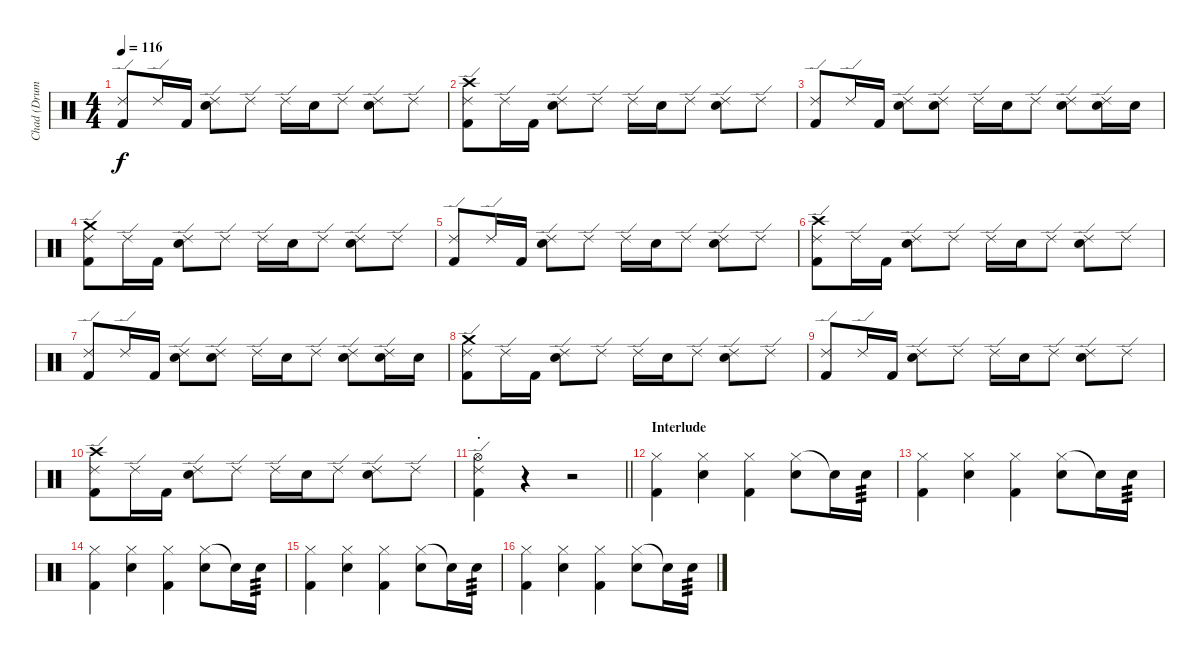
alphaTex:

\track ("Chad (Drums)" "Chad (Drum") {instrument percussion}
\staff {score}
\articulation defaults
\ts (4 4)
\tempo 116
\clef neutral
\ks c
("Ride (edge) 2" "Kick (hit) 2").8{dy f} "Ride (edge) 2".16 "Kick (hit) 2".16 ("Ride (edge) 2" "Snare (hit) 2").8 "Ride (edge) 2".8 "Ride (edge) 2".16 "Snare (hit) 2".16 "Ride (edge) 2".8 ("Ride (edge) 2" "Snare (hit) 2").8 "Ride (edge) 2".8 |
("Ride (edge) 2" "Crash high (hit)" "Kick (hit) 2").8 "Ride (edge) 2".16 "Kick (hit) 2".16 ("Ride (edge) 2" "Snare (hit) 2").8 "Ride (edge) 2".8 "Ride (edge) 2".16 "Snare (hit) 2".16 "Ride (edge) 2".8 ("Ride (edge) 2" "Snare (hit) 2").8 "Ride (edge) 2".8 |
("Ride (edge) 2" "Kick (hit) 2").8 "Ride (edge) 2".16 "Kick (hit) 2".16 ("Ride (edge) 2" "Snare (hit) 2").8 ("Ride (edge) 2" "Snare (hit) 2").8 "Ride (edge) 2".16 "Snare (hit) 2".16 "Ride (edge) 2".8 ("Ride (edge) 2" "Snare (hit) 2").8 ("Ride (edge) 2" "Snare (hit) 2").16 "Snare (hit) 2".16 |
("Ride (edge) 2" "Crash medium (hit)" "Kick (hit) 2").8 "Ride (edge) 2".16 "Kick (hit) 2".16 ("Ride (edge) 2" "Snare (hit) 2").8 "Ride (edge) 2".8 "Ride (edge) 2".16 "Snare (hit) 2".16 "Ride (edge) 2".8 ("Ride (edge) 2" "Snare (hit) 2").8 "Ride (edge) 2".8 |
("Ride (edge) 2" "Kick (hit) 2").8 "Ride (edge) 2".16 "Kick (hit) 2".16 ("Ride (edge) 2" "Snare (hit) 2").8 "Ride (edge) 2".8 "Ride (edge) 2".16 "Snare (hit) 2".16 "Ride (edge) 2".8 ("Ride (edge) 2" "Snare (hit) 2").8 "Ride (edge) 2".8 |
("Ride (edge) 2" "Crash high (hit)" "Kick (hit) 2").8 "Ride (edge) 2".16 "Kick (hit) 2".16 ("Ride (edge) 2" "Snare (hit) 2").8 "Ride (edge) 2".8 "Ride (edge) 2".16 "Snare (hit) 2".16 "Ride (edge) 2".8 ("Ride (edge) 2" "Snare (hit) 2").8 "Ride (edge) 2".8 |
("Ride (edge) 2" "Kick (hit) 2").8 "Ride (edge) 2".16 "Kick (hit) 2".16 ("Ride (edge) 2" "Snare (hit) 2").8 ("Ride (edge) 2" "Snare (hit) 2").8 "Ride (edge) 2".16 "Snare (hit) 2".16 "Ride (edge) 2".8 ("Ride (edge) 2" "Snare (hit) 2").8 ("Ride (edge) 2" "Snare (hit) 2").16 "Snare (hit) 2".16 |
("Ride (edge) 2" "Crash medium (hit)" "Kick (hit) 2").8 "Ride (edge) 2".16 "Kick (hit) 2".16 ("Ride (edge) 2" "Snare (hit) 2").8 "Ride (edge) 2".8 "Ride (edge) 2".16 "Snare (hit) 2".16 "Ride (edge) 2".8 ("Ride (edge) 2" "Snare (hit) 2").8 "Ride (edge) 2".8 |
("Ride (edge) 2" "Kick (hit) 2").8 "Ride (edge) 2".16 "Kick (hit) 2".16 ("Ride (edge) 2" "Snare (hit) 2").8 "Ride (edge) 2".8 "Ride (edge) 2".16 "Snare (hit) 2".16 "Ride (edge) 2".8 ("Ride (edge) 2" "Snare (hit) 2").8 "Ride (edge) 2".8 |
("Ride (edge) 2" "Crash high (hit)" "Kick (hit) 2").8 "Ride (edge) 2".16 "Kick (hit) 2".16 ("Ride (edge) 2" "Snare (hit) 2").8 "Ride (edge) 2".8 "Ride (edge) 2".16 "Snare (hit) 2".16 "Ride (edge) 2".8 ("Ride (edge) 2" "Snare (hit) 2").8 "Ride (edge) 2".8 |
\barLineRight lightlight
("Ride (edge) 2" "Hi-Hat (open)"{st} "Kick (hit) 2").4 r.4 r.2 |
\section ("" "Interlude")
("Hi-Hat (closed)" "Kick (hit) 2").4 ("Hi-Hat (closed)" "Snare (hit) 2").4 ("Hi-Hat (closed)" "Kick (hit) 2").4 ("Hi-Hat (closed)" "Snare (hit) 2").8 "Snare (hit) 2"{t}.16 "Snare (hit) 2".16{tp 3} |
("Hi-Hat (closed)" "Kick (hit) 2").4 ("Hi-Hat (closed)" "Snare (hit) 2").4 ("Hi-Hat (closed)" "Kick (hit) 2").4 ("Hi-Hat (closed)" "Snare (hit) 2").8 "Snare (hit) 2"{t}.16 "Snare (hit) 2".16{tp 3} |
("Hi-Hat (closed)" "Kick (hit) 2").4 ("Hi-Hat (closed)" "Snare (hit) 2").4 ("Hi-Hat (closed)" "Kick (hit) 2").4 ("Hi-Hat (closed)" "Snare (hit) 2").8 "Snare (hit) 2"{t}.16 "Snare (hit) 2".16{tp 3} |
("Hi-Hat (closed)" "Kick (hit) 2").4 ("Hi-Hat (closed)" "Snare (hit) 2").4 ("Hi-Hat (closed)" "Kick (hit) 2").4 ("Hi-Hat (closed)" "Snare (hit) 2").8 "Snare (hit) 2"{t}.16 "Snare (hit) 2".16{tp 3} |
("Hi-Hat (closed)" "Kick (hit) 2").4 ("Hi-Hat (closed)" "Snare (hit) 2").4 ("Hi-Hat (closed)" "Kick (hit) 2").4 ("Hi-Hat (closed)" "Snare (hit) 2").8 "Snare (hit) 2"{t}.16 "Snare (hit) 2".16{tp 3}
